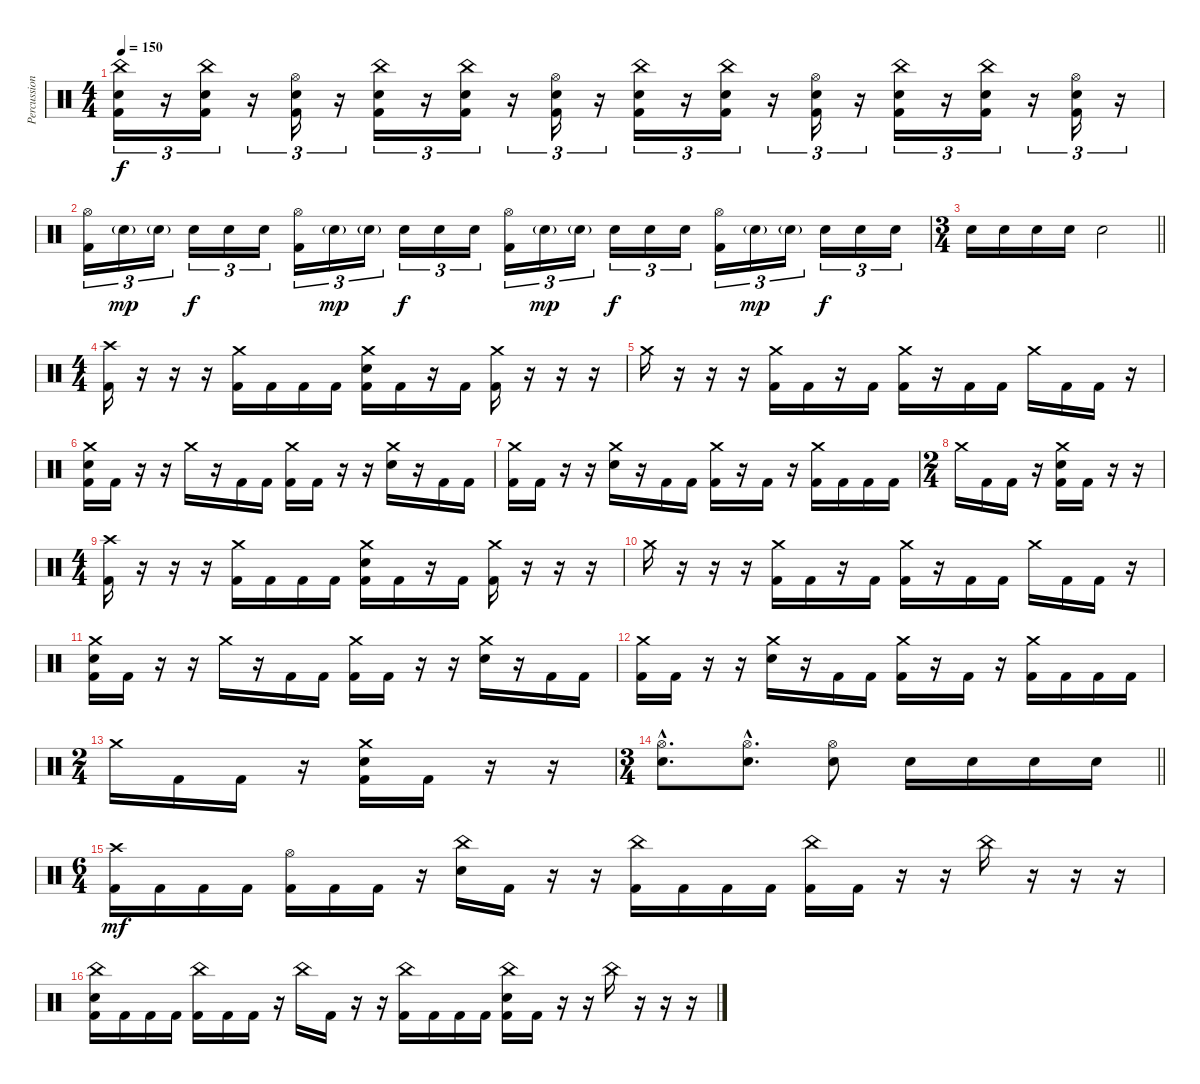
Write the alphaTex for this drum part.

\track ("Percussion" "Percussion") {instrument percussion}
\staff {score}
\articulation defaults
\ts (4 4)
\tempo 150
\clef neutral
\ks c
("China (hit)" "Electric Snare (hit)" "Kick (hit) 2").16{tu (3 2) dy f} r.16{tu (3 2)} ("China (hit)" "Electric Snare (hit)" "Kick (hit) 2").16{tu (3 2)} r.16{tu (3 2)} ("Hi-Hat (open)" "Electric Snare (hit)" "Kick (hit) 2").16{tu (3 2)} r.16{tu (3 2)} ("China (hit)" "Electric Snare (hit)" "Kick (hit) 2").16{tu (3 2)} r.16{tu (3 2)} ("China (hit)" "Electric Snare (hit)" "Kick (hit) 2").16{tu (3 2)} r.16{tu (3 2)} ("Hi-Hat (open)" "Electric Snare (hit)" "Kick (hit) 2").16{tu (3 2)} r.16{tu (3 2)} ("China (hit)" "Electric Snare (hit)" "Kick (hit) 2").16{tu (3 2)} r.16{tu (3 2)} ("China (hit)" "Electric Snare (hit)" "Kick (hit) 2").16{tu (3 2)} r.16{tu (3 2)} ("Hi-Hat (open)" "Electric Snare (hit)" "Kick (hit) 2").16{tu (3 2)} r.16{tu (3 2)} ("China (hit)" "Electric Snare (hit)" "Kick (hit) 2").16{tu (3 2)} r.16{tu (3 2)} ("China (hit)" "Electric Snare (hit)" "Kick (hit) 2").16{tu (3 2)} r.16{tu (3 2)} ("Hi-Hat (open)" "Electric Snare (hit)" "Kick (hit) 2").16{tu (3 2)} r.16{tu (3 2)} |
("Hi-Hat (open)" "Kick (hit) 2").16{tu (3 2)} "Electric Snare (hit)"{g}.16{tu (3 2) dy mp} "Electric Snare (hit)"{g}.16{tu (3 2)} "Electric Snare (hit)".16{tu (3 2) dy f} "Electric Snare (hit)".16{tu (3 2)} "Electric Snare (hit)".16{tu (3 2)} ("Hi-Hat (open)" "Kick (hit) 2").16{tu (3 2)} "Electric Snare (hit)"{g}.16{tu (3 2) dy mp} "Electric Snare (hit)"{g}.16{tu (3 2)} "Electric Snare (hit)".16{tu (3 2) dy f} "Electric Snare (hit)".16{tu (3 2)} "Electric Snare (hit)".16{tu (3 2)} ("Hi-Hat (open)" "Kick (hit) 2").16{tu (3 2)} "Electric Snare (hit)"{g}.16{tu (3 2) dy mp} "Electric Snare (hit)"{g}.16{tu (3 2)} "Electric Snare (hit)".16{tu (3 2) dy f} "Electric Snare (hit)".16{tu (3 2)} "Electric Snare (hit)".16{tu (3 2)} ("Hi-Hat (open)" "Kick (hit) 2").16{tu (3 2)} "Electric Snare (hit)"{g}.16{tu (3 2) dy mp} "Electric Snare (hit)"{g}.16{tu (3 2)} "Electric Snare (hit)".16{tu (3 2) dy f} "Electric Snare (hit)".16{tu (3 2)} "Electric Snare (hit)".16{tu (3 2)} |
\ts (3 4)
\barLineRight lightlight "Electric Snare (hit)".16 "Electric Snare (hit)".16 "Electric Snare (hit)".16 "Electric Snare (hit)".16 "Electric Snare (hit)".2
|
\ts (4 4)
\section ("" "")
("Crash high (hit)" "Kick (hit) 2").16 r.16 r.16 r.16 ("Crash medium (hit)" "Kick (hit) 2").16 "Kick (hit) 2".16 "Kick (hit) 2".16 "Kick (hit) 2".16 ("Crash medium (hit)" "Electric Snare (hit)" "Kick (hit) 2").16 "Kick (hit) 2".16 r.16 "Kick (hit) 2".16 ("Crash medium (hit)" "Kick (hit) 2").16 r.16 r.16 r.16 |
"Crash medium (hit)".16 r.16 r.16 r.16 ("Crash medium (hit)" "Kick (hit) 2").16 "Kick (hit) 2".16 r.16 "Kick (hit) 2".16 ("Crash medium (hit)" "Kick (hit) 2").16 r.16 "Kick (hit) 2".16 "Kick (hit) 2".16 "Crash medium (hit)".16 "Kick (hit) 2".16 "Kick (hit) 2".16 r.16 |
("Crash medium (hit)" "Electric Snare (hit)" "Kick (hit) 2").16 "Kick (hit) 2".16 r.16 r.16 "Crash medium (hit)".16 r.16 "Kick (hit) 2".16 "Kick (hit) 2".16 ("Crash medium (hit)" "Kick (hit) 2").16 "Kick (hit) 2".16 r.16 r.16 ("Crash medium (hit)" "Electric Snare (hit)").16 r.16 "Kick (hit) 2".16 "Kick (hit) 2".16 |
("Crash medium (hit)" "Kick (hit) 2").16 "Kick (hit) 2".16 r.16 r.16 ("Crash medium (hit)" "Electric Snare (hit)").16 r.16 "Kick (hit) 2".16 "Kick (hit) 2".16 ("Crash medium (hit)" "Kick (hit) 2").16 r.16 "Kick (hit) 2".16 r.16 ("Crash medium (hit)" "Kick (hit) 2").16 "Kick (hit) 2".16 "Kick (hit) 2".16 "Kick (hit) 2".16 |
\ts (2 4)
"Crash medium (hit)".16 "Kick (hit) 2".16 "Kick (hit) 2".16 r.16 ("Crash medium (hit)" "Electric Snare (hit)" "Kick (hit) 2").16 "Kick (hit) 2".16 r.16 r.16 |
\ts (4 4)
("Crash high (hit)" "Kick (hit) 2").16 r.16 r.16 r.16 ("Crash medium (hit)" "Kick (hit) 2").16 "Kick (hit) 2".16 "Kick (hit) 2".16 "Kick (hit) 2".16 ("Crash medium (hit)" "Electric Snare (hit)" "Kick (hit) 2").16 "Kick (hit) 2".16 r.16 "Kick (hit) 2".16 ("Crash medium (hit)" "Kick (hit) 2").16 r.16 r.16 r.16 |
"Crash medium (hit)".16 r.16 r.16 r.16 ("Crash medium (hit)" "Kick (hit) 2").16 "Kick (hit) 2".16 r.16 "Kick (hit) 2".16 ("Crash medium (hit)" "Kick (hit) 2").16 r.16 "Kick (hit) 2".16 "Kick (hit) 2".16 "Crash medium (hit)".16 "Kick (hit) 2".16 "Kick (hit) 2".16 r.16 |
("Crash medium (hit)" "Electric Snare (hit)" "Kick (hit) 2").16 "Kick (hit) 2".16 r.16 r.16 "Crash medium (hit)".16 r.16 "Kick (hit) 2".16 "Kick (hit) 2".16 ("Crash medium (hit)" "Kick (hit) 2").16 "Kick (hit) 2".16 r.16 r.16 ("Crash medium (hit)" "Electric Snare (hit)").16 r.16 "Kick (hit) 2".16 "Kick (hit) 2".16 |
("Crash medium (hit)" "Kick (hit) 2").16 "Kick (hit) 2".16 r.16 r.16 ("Crash medium (hit)" "Electric Snare (hit)").16 r.16 "Kick (hit) 2".16 "Kick (hit) 2".16 ("Crash medium (hit)" "Kick (hit) 2").16 r.16 "Kick (hit) 2".16 r.16 ("Crash medium (hit)" "Kick (hit) 2").16 "Kick (hit) 2".16 "Kick (hit) 2".16 "Kick (hit) 2".16 |
\ts (2 4)
"Crash medium (hit)".16 "Kick (hit) 2".16 "Kick (hit) 2".16 r.16 ("Crash medium (hit)" "Electric Snare (hit)" "Kick (hit) 2").16 "Kick (hit) 2".16 r.16 r.16 |
\ts (3 4)
\barLineRight lightlight
("Hi-Hat (open)"{hac} "Electric Snare (hit)"{hac}).8{d} ("Hi-Hat (open)"{hac} "Electric Snare (hit)"{hac}).8{d} ("Hi-Hat (open)" "Electric Snare (hit)").8 "Electric Snare (hit)".16 "Electric Snare (hit)".16 "Electric Snare (hit)".16 "Electric Snare (hit)".16 |
\ts (6 4)
\section ("" "")
("Crash high (hit)" "Kick (hit) 2").16{dy mf} "Kick (hit) 2".16 "Kick (hit) 2".16 "Kick (hit) 2".16 ("Hi-Hat (open)" "Kick (hit) 2").16 "Kick (hit) 2".16 "Kick (hit) 2".16 r.16 ("China (hit)" "Electric Snare (hit)").16 "Kick (hit) 2".16 r.16 r.16 ("China (hit)" "Kick (hit) 2").16 "Kick (hit) 2".16 "Kick (hit) 2".16 "Kick (hit) 2".16 ("China (hit)" "Kick (hit) 2").16 "Kick (hit) 2".16 r.16 r.16 "China (hit)".16 r.16 r.16 r.16 |
("China (hit)" "Electric Snare (hit)" "Kick (hit) 2").16 "Kick (hit) 2".16 "Kick (hit) 2".16 "Kick (hit) 2".16 ("China (hit)" "Kick (hit) 2").16 "Kick (hit) 2".16 "Kick (hit) 2".16 r.16 "China (hit)".16 "Kick (hit) 2".16 r.16 r.16 ("China (hit)" "Kick (hit) 2").16 "Kick (hit) 2".16 "Kick (hit) 2".16 "Kick (hit) 2".16 ("China (hit)" "Electric Snare (hit)" "Kick (hit) 2").16 "Kick (hit) 2".16 r.16 r.16 "China (hit)".16 r.16 r.16 r.16
